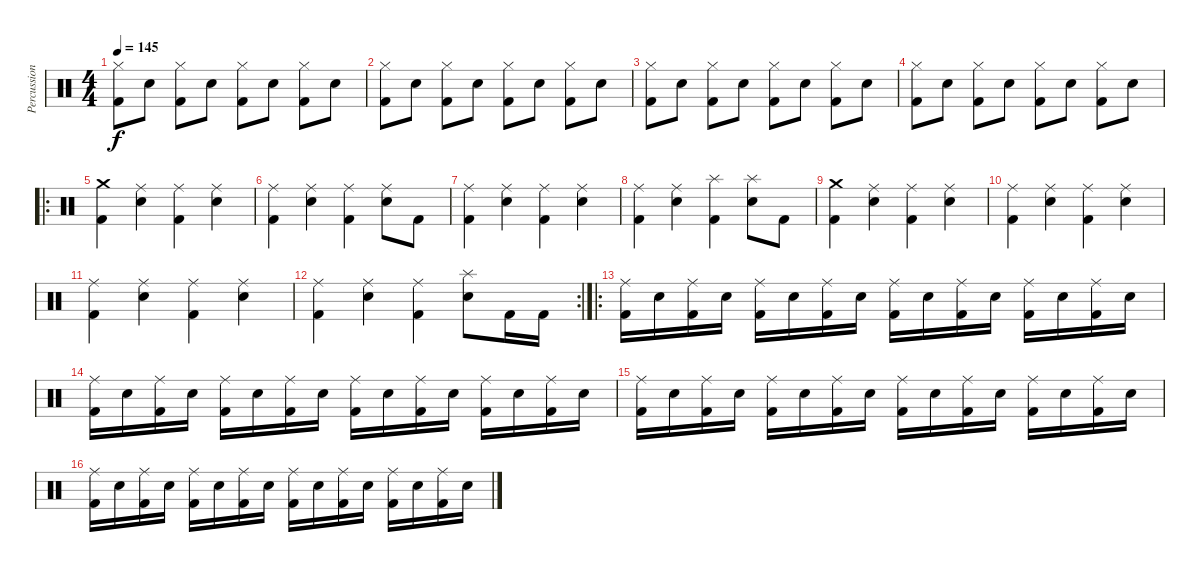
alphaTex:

\track ("Percussions" "Percussion") {instrument percussion}
\staff {score}
\articulation defaults
\ts (4 4)
\tempo 145
\clef neutral
\ks c
("Hi-Hat (closed)" "Kick (hit) 2").8{dy f} "Snare (hit) 2".8 ("Hi-Hat (closed)" "Kick (hit) 2").8 "Snare (hit) 2".8 ("Hi-Hat (closed)" "Kick (hit) 2").8 "Snare (hit) 2".8 ("Hi-Hat (closed)" "Kick (hit) 2").8 "Snare (hit) 2".8 |
("Hi-Hat (closed)" "Kick (hit) 2").8 "Snare (hit) 2".8 ("Hi-Hat (closed)" "Kick (hit) 2").8 "Snare (hit) 2".8 ("Hi-Hat (closed)" "Kick (hit) 2").8 "Snare (hit) 2".8 ("Hi-Hat (closed)" "Kick (hit) 2").8 "Snare (hit) 2".8 |
("Hi-Hat (closed)" "Kick (hit) 2").8 "Snare (hit) 2".8 ("Hi-Hat (closed)" "Kick (hit) 2").8 "Snare (hit) 2".8 ("Hi-Hat (closed)" "Kick (hit) 2").8 "Snare (hit) 2".8 ("Hi-Hat (closed)" "Kick (hit) 2").8 "Snare (hit) 2".8 |
("Hi-Hat (closed)" "Kick (hit) 2").8 "Snare (hit) 2".8 ("Hi-Hat (closed)" "Kick (hit) 2").8 "Snare (hit) 2".8 ("Hi-Hat (closed)" "Kick (hit) 2").8 "Snare (hit) 2".8 ("Hi-Hat (closed)" "Kick (hit) 2").8 "Snare (hit) 2".8 |
\ro
("Crash medium (hit)" "Kick (hit) 2").4 ("Ride (middle)" "Snare (hit) 2").4 ("Ride (middle)" "Kick (hit) 2").4 ("Ride (middle)" "Snare (hit) 2").4 |
("Ride (middle)" "Kick (hit) 2").4 ("Ride (middle)" "Snare (hit) 2").4 ("Ride (middle)" "Kick (hit) 2").4 ("Ride (middle)" "Snare (hit) 2").8 "Kick (hit) 2".8 |
("Ride (middle)" "Kick (hit) 2").4 ("Ride (middle)" "Snare (hit) 2").4 ("Ride (middle)" "Kick (hit) 2").4 ("Ride (middle)" "Snare (hit) 2").4 |
("Ride (middle)" "Kick (hit) 2").4 ("Ride (middle)" "Snare (hit) 2").4 ("Splash (hit)" "Kick (hit) 2").4 ("Splash (hit)" "Snare (hit) 2").8 "Kick (hit) 2".8 |
("Crash medium (hit)" "Kick (hit) 2").4 ("Ride (middle)" "Snare (hit) 2").4 ("Ride (middle)" "Kick (hit) 2").4 ("Ride (middle)" "Snare (hit) 2").4 |
("Ride (middle)" "Kick (hit) 2").4 ("Ride (middle)" "Snare (hit) 2").4 ("Ride (middle)" "Kick (hit) 2").4 ("Ride (middle)" "Snare (hit) 2").4 |
("Ride (middle)" "Kick (hit) 2").4 ("Ride (middle)" "Snare (hit) 2").4 ("Ride (middle)" "Kick (hit) 2").4 ("Ride (middle)" "Snare (hit) 2").4 |
\rc 2
("Ride (middle)" "Kick (hit) 2").4 ("Ride (middle)" "Snare (hit) 2").4 ("Ride (middle)" "Kick (hit) 2").4 ("Splash (hit)" "Snare (hit) 2").8 "Kick (hit) 2".16 "Kick (hit) 2".16 |
\ro
("Ride (middle)" "Kick (hit) 2").16 "Snare (hit) 2".16 ("Ride (middle)" "Kick (hit) 2").16 "Snare (hit) 2".16 ("Ride (middle)" "Kick (hit) 2").16 "Snare (hit) 2".16 ("Ride (middle)" "Kick (hit) 2").16 "Snare (hit) 2".16 ("Ride (middle)" "Kick (hit) 2").16 "Snare (hit) 2".16 ("Ride (middle)" "Kick (hit) 2").16 "Snare (hit) 2".16 ("Ride (middle)" "Kick (hit) 2").16 "Snare (hit) 2".16 ("Ride (middle)" "Kick (hit) 2").16 "Snare (hit) 2".16 |
("Ride (middle)" "Kick (hit) 2").16 "Snare (hit) 2".16 ("Ride (middle)" "Kick (hit) 2").16 "Snare (hit) 2".16 ("Ride (middle)" "Kick (hit) 2").16 "Snare (hit) 2".16 ("Ride (middle)" "Kick (hit) 2").16 "Snare (hit) 2".16 ("Ride (middle)" "Kick (hit) 2").16 "Snare (hit) 2".16 ("Ride (middle)" "Kick (hit) 2").16 "Snare (hit) 2".16 ("Ride (middle)" "Kick (hit) 2").16 "Snare (hit) 2".16 ("Ride (middle)" "Kick (hit) 2").16 "Snare (hit) 2".16 |
("Ride (middle)" "Kick (hit) 2").16 "Snare (hit) 2".16 ("Ride (middle)" "Kick (hit) 2").16 "Snare (hit) 2".16 ("Ride (middle)" "Kick (hit) 2").16 "Snare (hit) 2".16 ("Ride (middle)" "Kick (hit) 2").16 "Snare (hit) 2".16 ("Ride (middle)" "Kick (hit) 2").16 "Snare (hit) 2".16 ("Ride (middle)" "Kick (hit) 2").16 "Snare (hit) 2".16 ("Ride (middle)" "Kick (hit) 2").16 "Snare (hit) 2".16 ("Ride (middle)" "Kick (hit) 2").16 "Snare (hit) 2".16 |
("Ride (middle)" "Kick (hit) 2").16 "Snare (hit) 2".16 ("Ride (middle)" "Kick (hit) 2").16 "Snare (hit) 2".16 ("Ride (middle)" "Kick (hit) 2").16 "Snare (hit) 2".16 ("Ride (middle)" "Kick (hit) 2").16 "Snare (hit) 2".16 ("Ride (middle)" "Kick (hit) 2").16 "Snare (hit) 2".16 ("Ride (middle)" "Kick (hit) 2").16 "Snare (hit) 2".16 ("Ride (middle)" "Kick (hit) 2").16 "Snare (hit) 2".16 ("Ride (middle)" "Kick (hit) 2").16 "Snare (hit) 2".16
